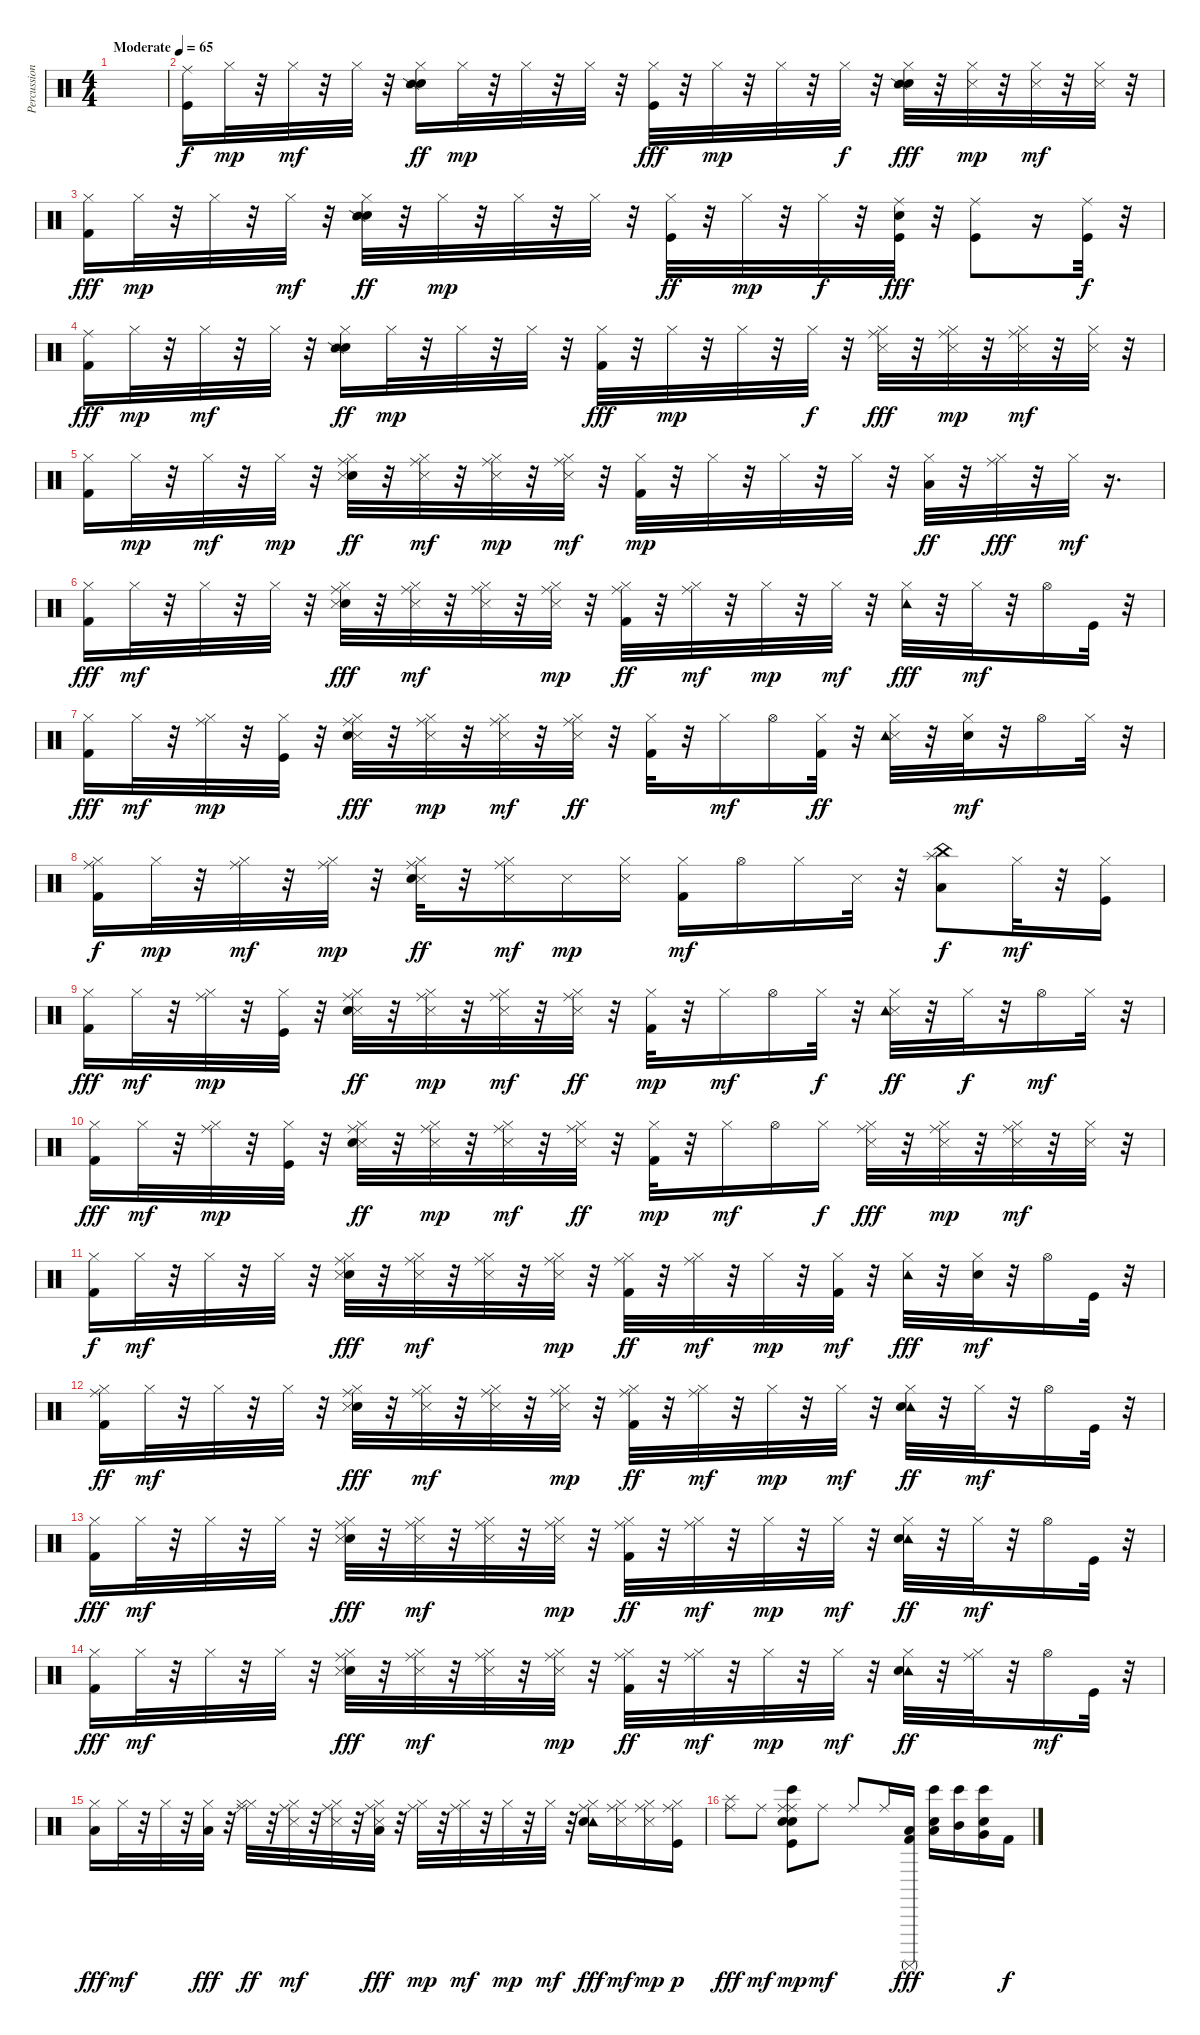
\track ("Percussion" "Percussion") {instrument percussion}
\staff {score}
\articulation defaults
\ts (4 4)
\tempo (65 "Moderate")
\clef neutral
\ks c
|
("Ride (middle)" "Kick (hit)").16 "Hi-Hat (closed)".32{dy mp} r.32 "Hi-Hat (closed)".32{dy mf} r.32 "Hi-Hat (closed)".32 r.32 ("Hi-Hat (closed)" "Hand Clap (hit)" "Snare (side stick) 2").16{dy ff} "Hi-Hat (closed)".32{dy mp} r.32 "Hi-Hat (closed)".32 r.32 "Hi-Hat (closed)".32 r.32 ("Hi-Hat (closed)" "Kick (hit)").32{dy fff} r.32 "Hi-Hat (closed)".32{dy mp} r.32 "Hi-Hat (closed)".32 r.32 "Hi-Hat (closed)".32{dy f} r.32 ("Hi-Hat (closed)" "Hand Clap (hit)" "Snare (side stick) 2").32{dy fff} r.32 ("Hi-Hat (closed)" "Snare (side stick) 3").32{dy mp} r.32 ("Snare (side stick) 3" "Hi-Hat (closed)").32{dy mf} r.32 ("Hi-Hat (closed)" "Snare (side stick) 3").32 r.32 |
("Hi-Hat (closed)" "Kick (hit) 2").16{dy fff} "Hi-Hat (closed)".32{dy mp} r.32 "Hi-Hat (closed)".32 r.32 "Hi-Hat (closed)".32{dy mf} r.32 ("Hi-Hat (closed)" "Hand Clap (hit)" "Snare (side stick) 2").32{dy ff} r.32 "Hi-Hat (closed)".32{dy mp} r.32 "Hi-Hat (closed)".32 r.32 "Hi-Hat (closed)".32 r.32 ("Hi-Hat (closed)" "Kick (hit)").32{dy ff} r.32 "Hi-Hat (closed)".32{dy mp} r.32 "Hi-Hat (closed)".32{dy f} r.32 ("Ride (middle)" "Kick (hit)" "Hand Clap (hit)").32{dy fff} r.32 ("Ride (middle)" "Kick (hit)").8 r.16 ("Kick (hit)" "Ride (middle)").32{dy f} r.32 |
("Ride (middle)" "Kick (hit) 2").16{dy fff} "Hi-Hat (closed)".32{dy mp} r.32 "Hi-Hat (closed)".32{dy mf} r.32 "Hi-Hat (closed)".32 r.32 ("Hi-Hat (closed)" "Hand Clap (hit)" "Snare (side stick) 2").16{dy ff} "Hi-Hat (closed)".32{dy mp} r.32 "Hi-Hat (closed)".32 r.32 "Hi-Hat (closed)".32 r.32 ("Hi-Hat (closed)" "Kick (hit) 2").32{dy fff} r.32 "Hi-Hat (closed)".32{dy mp} r.32 "Hi-Hat (closed)".32 r.32 "Hi-Hat (closed)".32{dy f} r.32 ("Hi-Hat (closed)" "Ride (middle)" "Snare (side stick) 3").32{dy fff} r.32 ("Hi-Hat (closed)" "Snare (side stick) 3" "Ride (middle)").32{dy mp} r.32 ("Snare (side stick) 3" "Hi-Hat (closed)" "Ride (middle)").32{dy mf} r.32 ("Hi-Hat (closed)" "Snare (side stick) 3").32 r.32 |
("Hi-Hat (closed)" "Kick (hit) 2").16 "Hi-Hat (closed)".32{dy mp} r.32 "Hi-Hat (closed)".32{dy mf} r.32 "Hi-Hat (closed)".32{dy mp} r.32 ("Hand Clap (hit)" "Snare (side stick) 3" "Ride (middle)" "Hi-Hat (closed)").32{dy ff} r.32 ("Hi-Hat (closed)" "Ride (middle)" "Snare (side stick) 3").32{dy mf} r.32 ("Ride (middle)" "Hi-Hat (closed)" "Snare (side stick) 3").32{dy mp} r.32 ("Hi-Hat (closed)" "Snare (side stick) 3" "Ride (middle)").32{dy mf} r.32 ("Hi-Hat (closed)" "Kick (hit) 2").32{dy mp} r.32 "Hi-Hat (closed)".32 r.32 "Hi-Hat (closed)".32 r.32 "Hi-Hat (closed)".32 r.32 ("Hi-Hat (closed)" "Low Tom (hit)").32{dy ff} r.32 ("Hi-Hat (closed)" "Ride (middle)").32{dy fff} r.32 "Hi-Hat (closed)".32{dy mf} r.16{d} |
("Kick (hit) 2" "Hi-Hat (closed)").16{dy fff} "Hi-Hat (closed)".32{dy mf} r.32 "Hi-Hat (closed)".32 r.32 "Hi-Hat (closed)".32 r.32 ("Hand Clap (hit)" "Ride (middle)" "Hi-Hat (closed)" "Snare (side stick) 3").32{dy fff} r.32 ("Hi-Hat (closed)" "Snare (side stick) 3" "Ride (middle)").32{dy mf} r.32 ("Ride (middle)" "Snare (side stick) 3" "Hi-Hat (closed)").32 r.32 ("Ride (middle)" "Hi-Hat (closed)" "Snare (side stick) 3").32{dy mp} r.32 ("Ride (middle)" "Hi-Hat (closed)" "Kick (hit) 2").32{dy ff} r.32 ("Ride (middle)" "Hi-Hat (closed)").32{dy mf} r.32 "Hi-Hat (closed)".32{dy mp} r.32 "Hi-Hat (closed)".32{dy mf} r.32 ("Hi-Hat (closed)" "Tambourine (hit)").32{dy fff} r.32 "Hi-Hat (closed)".32{dy mf} r.32 "Hi-Hat (open)".16 "Kick (hit)".32 r.32 |
("Hi-Hat (closed)" "Kick (hit) 2").16{dy fff} "Hi-Hat (closed)".32{dy mf} r.32 ("Hi-Hat (closed)" "Ride (middle)").32{dy mp} r.32 ("Hi-Hat (closed)" "Kick (hit)").32 r.32 ("Snare (side stick) 3" "Hi-Hat (closed)" "Ride (middle)" "Hand Clap (hit)").32{dy fff} r.32 ("Hi-Hat (closed)" "Ride (middle)" "Snare (side stick) 3").32{dy mp} r.32 ("Ride (middle)" "Snare (side stick) 3" "Hi-Hat (closed)").32{dy mf} r.32 ("Ride (middle)" "Hi-Hat (closed)" "Snare (side stick) 3").32{dy ff} r.32 ("Hi-Hat (closed)" "Kick (hit) 2").32 r.32 "Hi-Hat (closed)".16{dy mf} "Hi-Hat (open)".16 ("Hi-Hat (closed)" "Kick (hit) 2").32{dy ff} r.32 ("Snare (side stick) 3" "Tambourine (hit)" "Hi-Hat (closed)").32 r.32 ("Hi-Hat (closed)" "Electric Snare (hit)").32{dy mf} r.32 "Hi-Hat (open)".16 "Hi-Hat (closed)".32 r.32 |
("Kick (hit) 2" "Hi-Hat (closed)" "Ride (middle)").16{dy f} "Hi-Hat (closed)".32{dy mp} r.32 ("Ride (middle)" "Hi-Hat (closed)").32{dy mf} r.32 ("Hi-Hat (closed)" "Ride (middle)").32{dy mp} r.32 ("Snare (side stick) 3" "Hi-Hat (closed)" "Ride (middle)" "Hand Clap (hit)").32{dy ff} r.32 ("Hi-Hat (closed)" "Snare (side stick) 3" "Ride (middle)").16{dy mf} "Snare (side stick) 3".16{dy mp} ("Snare (side stick) 3" "Hi-Hat (closed)").16 ("Hi-Hat (closed)" "Kick (hit) 2").16{dy mf} "Hi-Hat (open)".16 "Hi-Hat (closed)".16 "Snare (side stick) 3".32 r.32 ("Low Tom (hit)" "China (hit)" "Splash (hit)").8{dy f} "Hi-Hat (closed)".32{dy mf} r.32 ("Kick (hit)" "Hi-Hat (closed)").16 |
("Hi-Hat (closed)" "Kick (hit) 2").16{dy fff} "Hi-Hat (closed)".32{dy mf} r.32 ("Hi-Hat (closed)" "Ride (middle)").32{dy mp} r.32 ("Hi-Hat (closed)" "Kick (hit)").32 r.32 ("Snare (side stick) 3" "Hi-Hat (closed)" "Ride (middle)" "Hand Clap (hit)").32{dy ff} r.32 ("Hi-Hat (closed)" "Ride (middle)" "Snare (side stick) 3").32{dy mp} r.32 ("Ride (middle)" "Snare (side stick) 3" "Hi-Hat (closed)").32{dy mf} r.32 ("Ride (middle)" "Hi-Hat (closed)" "Snare (side stick) 3").32{dy ff} r.32 ("Hi-Hat (closed)" "Kick (hit) 2").32{dy mp} r.32 "Hi-Hat (closed)".16{dy mf} "Hi-Hat (open)".16 "Hi-Hat (closed)".32{dy f} r.32 ("Snare (side stick) 3" "Tambourine (hit)" "Hi-Hat (closed)").32{dy ff} r.32 "Hi-Hat (closed)".32{dy f} r.32 "Hi-Hat (open)".16{dy mf} "Hi-Hat (closed)".32 r.32 |
("Hi-Hat (closed)" "Kick (hit) 2").16{dy fff} "Hi-Hat (closed)".32{dy mf} r.32 ("Hi-Hat (closed)" "Ride (middle)").32{dy mp} r.32 ("Hi-Hat (closed)" "Kick (hit)").32 r.32 ("Snare (side stick) 3" "Hi-Hat (closed)" "Ride (middle)" "Hand Clap (hit)").32{dy ff} r.32 ("Hi-Hat (closed)" "Ride (middle)" "Snare (side stick) 3").32{dy mp} r.32 ("Ride (middle)" "Snare (side stick) 3" "Hi-Hat (closed)").32{dy mf} r.32 ("Ride (middle)" "Hi-Hat (closed)" "Snare (side stick) 3").32{dy ff} r.32 ("Hi-Hat (closed)" "Kick (hit) 2").32{dy mp} r.32 "Hi-Hat (closed)".16{dy mf} "Hi-Hat (open)".16 "Hi-Hat (closed)".16{dy f} ("Hi-Hat (closed)" "Ride (middle)" "Snare (side stick) 3").32{dy fff} r.32 ("Hi-Hat (closed)" "Snare (side stick) 3" "Ride (middle)").32{dy mp} r.32 ("Snare (side stick) 3" "Hi-Hat (closed)" "Ride (middle)").32{dy mf} r.32 ("Hi-Hat (closed)" "Snare (side stick) 3").32 r.32 |
("Kick (hit) 2" "Hi-Hat (closed)").16{dy f} "Hi-Hat (closed)".32{dy mf} r.32 "Hi-Hat (closed)".32 r.32 "Hi-Hat (closed)".32 r.32 ("Hand Clap (hit)" "Ride (middle)" "Hi-Hat (closed)" "Snare (side stick) 3").32{dy fff} r.32 ("Hi-Hat (closed)" "Snare (side stick) 3" "Ride (middle)").32{dy mf} r.32 ("Ride (middle)" "Snare (side stick) 3" "Hi-Hat (closed)").32 r.32 ("Ride (middle)" "Hi-Hat (closed)" "Snare (side stick) 3").32{dy mp} r.32 ("Ride (middle)" "Hi-Hat (closed)" "Kick (hit) 2").32{dy ff} r.32 ("Ride (middle)" "Hi-Hat (closed)").32{dy mf} r.32 "Hi-Hat (closed)".32{dy mp} r.32 ("Hi-Hat (closed)" "Kick (hit) 2").32{dy mf} r.32 ("Hi-Hat (closed)" "Tambourine (hit)").32{dy fff} r.32 ("Hi-Hat (closed)" "Electric Snare (hit)").32{dy mf} r.32 "Hi-Hat (open)".16 "Kick (hit)".32 r.32 |
("Kick (hit) 2" "Hi-Hat (closed)" "Ride (middle)").16{dy ff} "Hi-Hat (closed)".32{dy mf} r.32 "Hi-Hat (closed)".32 r.32 "Hi-Hat (closed)".32 r.32 ("Hand Clap (hit)" "Ride (middle)" "Hi-Hat (closed)" "Snare (side stick) 3").32{dy fff} r.32 ("Hi-Hat (closed)" "Snare (side stick) 3" "Ride (middle)").32{dy mf} r.32 ("Ride (middle)" "Snare (side stick) 3" "Hi-Hat (closed)").32 r.32 ("Ride (middle)" "Hi-Hat (closed)" "Snare (side stick) 3").32{dy mp} r.32 ("Ride (middle)" "Hi-Hat (closed)" "Kick (hit) 2").32{dy ff} r.32 ("Ride (middle)" "Hi-Hat (closed)").32{dy mf} r.32 "Hi-Hat (closed)".32{dy mp} r.32 "Hi-Hat (closed)".32{dy mf} r.32 ("Hi-Hat (closed)" "Tambourine (hit)" "Electric Snare (hit)").32{dy ff} r.32 "Hi-Hat (closed)".32{dy mf} r.32 "Hi-Hat (open)".16 "Kick (hit)".32 r.32 |
("Kick (hit) 2" "Hi-Hat (closed)").16{dy fff} "Hi-Hat (closed)".32{dy mf} r.32 "Hi-Hat (closed)".32 r.32 "Hi-Hat (closed)".32 r.32 ("Hand Clap (hit)" "Ride (middle)" "Hi-Hat (closed)" "Snare (side stick) 3").32{dy fff} r.32 ("Hi-Hat (closed)" "Snare (side stick) 3" "Ride (middle)").32{dy mf} r.32 ("Ride (middle)" "Snare (side stick) 3" "Hi-Hat (closed)").32 r.32 ("Ride (middle)" "Hi-Hat (closed)" "Snare (side stick) 3").32{dy mp} r.32 ("Ride (middle)" "Hi-Hat (closed)" "Kick (hit) 2").32{dy ff} r.32 ("Ride (middle)" "Hi-Hat (closed)").32{dy mf} r.32 "Hi-Hat (closed)".32{dy mp} r.32 "Hi-Hat (closed)".32{dy mf} r.32 ("Hi-Hat (closed)" "Tambourine (hit)" "Electric Snare (hit)").32{dy ff} r.32 "Hi-Hat (closed)".32{dy mf} r.32 "Hi-Hat (open)".16 "Kick (hit)".32 r.32 |
("Kick (hit) 2" "Hi-Hat (closed)").16{dy fff} "Hi-Hat (closed)".32{dy mf} r.32 "Hi-Hat (closed)".32 r.32 "Hi-Hat (closed)".32 r.32 ("Hand Clap (hit)" "Ride (middle)" "Hi-Hat (closed)" "Snare (side stick) 3").32{dy fff} r.32 ("Hi-Hat (closed)" "Snare (side stick) 3" "Ride (middle)").32{dy mf} r.32 ("Ride (middle)" "Snare (side stick) 3" "Hi-Hat (closed)").32 r.32 ("Ride (middle)" "Hi-Hat (closed)" "Snare (side stick) 3").32{dy mp} r.32 ("Ride (middle)" "Hi-Hat (closed)" "Kick (hit) 2").32{dy ff} r.32 ("Ride (middle)" "Hi-Hat (closed)").32{dy mf} r.32 "Hi-Hat (closed)".32{dy mp} r.32 "Hi-Hat (closed)".32{dy mf} r.32 ("Hi-Hat (closed)" "Tambourine (hit)" "Electric Snare (hit)").32{dy ff} r.32 ("Hi-Hat (closed)" "Ride (middle)").32 r.32 "Hi-Hat (open)".16{dy mf} "Kick (hit)".32 r.32 |
("Low Floor Tom (hit)" "Hi-Hat (closed)").16{dy fff} "Hi-Hat (closed)".32{dy mf} r.32 "Hi-Hat (closed)".32 r.32 ("Hi-Hat (closed)" "Low Floor Tom (hit)").32{dy fff} r.32 ("Hi-Hat (closed)" "Ride (middle)" "Hi-Hat (closed)").32{dy ff} r.32 ("Hi-Hat (closed)" "Snare (side stick) 3" "Ride (middle)").32{dy mf} r.32 ("Ride (middle)" "Snare (side stick) 3" "Hi-Hat (closed)").32 r.32 ("Ride (middle)" "Hi-Hat (closed)" "Snare (side stick) 3" "Low Floor Tom (hit)").32{dy fff} r.32 ("Ride (middle)" "Hi-Hat (closed)").32{dy mp} r.32 ("Ride (middle)" "Hi-Hat (closed)").32{dy mf} r.32 "Hi-Hat (closed)".32{dy mp} r.32 "Hi-Hat (closed)".32{dy mf} r.32 ("Hi-Hat (closed)" "Tambourine (hit)" "Ride (middle)" "Hand Clap (hit)").16{dy fff} ("Hi-Hat (closed)" "Snare (side stick) 3" "Ride (middle)").16{dy mf} ("Hi-Hat (closed)" "Snare (side stick) 3" "Ride (middle)").16{dy mp} ("Kick (hit)" "Hi-Hat (closed)" "Ride (middle)").16{dy p} |
("Ride (middle)" "Splash (hit)").8{dy fff} "Ride (middle)".8{dy mf} ("Ride (middle)" "Bongo High (hit)" "Hand Clap (hit)" "Ride (middle)" "Kick (hit)" "Electric Snare (hit)").8{dy mp} "Ride (middle)".8{dy mf} "Ride (middle)".8 "Ride (middle)".16 ("Kick (hit) 2" "Low Floor Tom (hit)" "Surdo (mute)").16{dy fff} ("Low Tom (hit)" "Bongo High (hit)" "Electric Snare (hit)").16 ("Mid Tom (hit)" "Bongo High (hit)").16 ("Hand Clap (hit)" "Very Low Tom (hit)" "Bongo High (hit)").16 "Kick (hit) 2".16{dy f}
